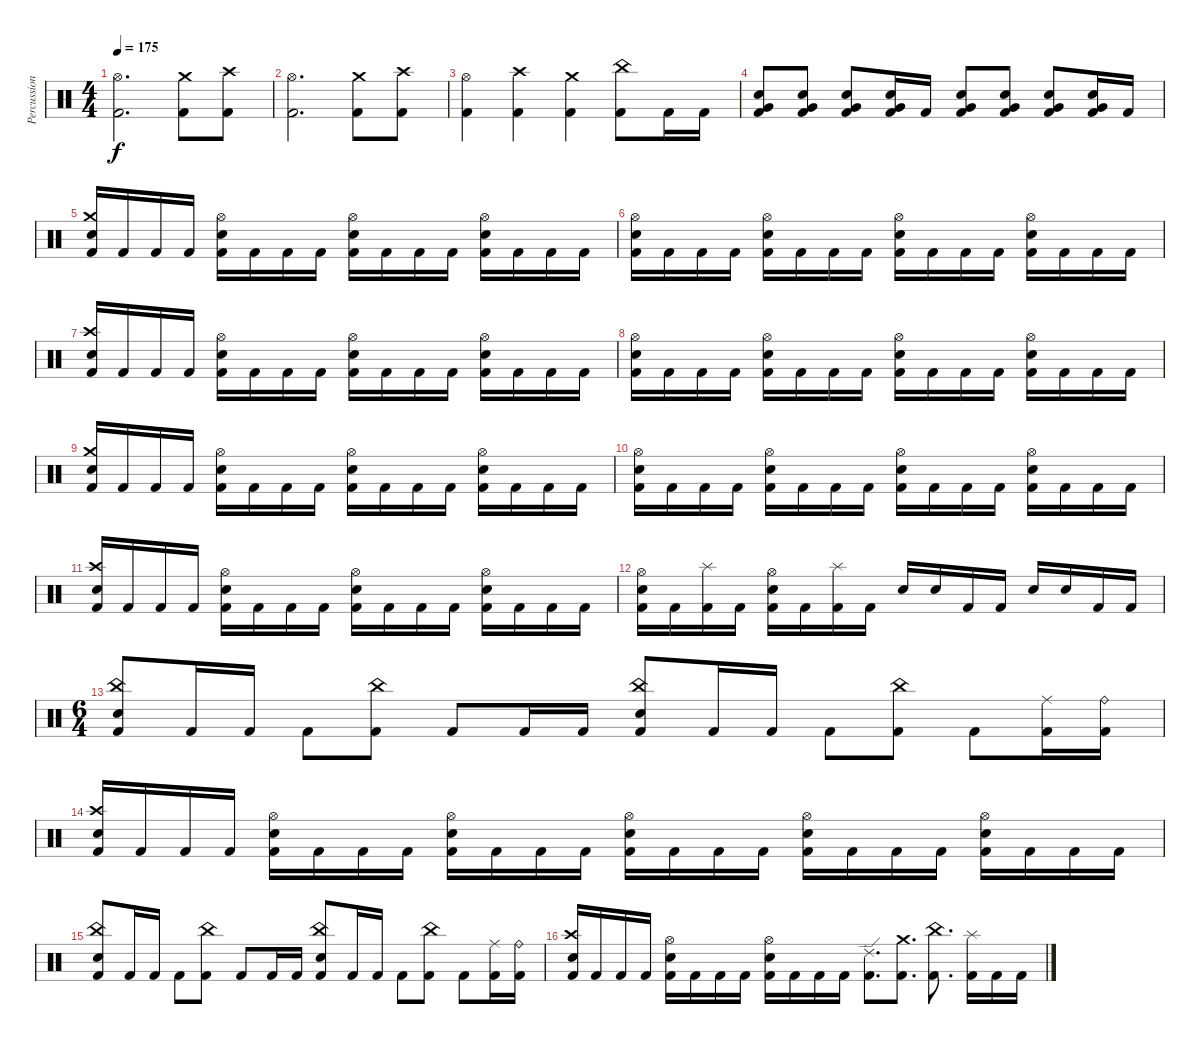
\track ("Percussions" "Percussion") {instrument percussion}
\staff {score}
\articulation defaults
\ts (4 4)
\tempo 175
\clef neutral
\ks c
("Hi-Hat (open)" "Kick (hit) 2").2{d dy f} ("Crash medium (hit)" "Kick (hit) 2").8 ("Crash high (hit)" "Kick (hit) 2").8 |
("Hi-Hat (open)" "Kick (hit) 2").2{d} ("Crash medium (hit)" "Kick (hit) 2").8 ("Crash high (hit)" "Kick (hit) 2").8 |
("Hi-Hat (open)" "Kick (hit) 2").4 ("Crash high (hit)" "Kick (hit) 2").4 ("Crash medium (hit)" "Kick (hit) 2").4 ("China (hit)" "Kick (hit) 2").8 "Kick (hit) 2".16 "Kick (hit) 2".16 |
("Electric Snare (hit)" "Very Low Tom (hit)" "Kick (hit) 2").8 ("Electric Snare (hit)" "Very Low Tom (hit)" "Kick (hit) 2").8 ("Electric Snare (hit)" "Very Low Tom (hit)" "Kick (hit) 2").8 ("Electric Snare (hit)" "Very Low Tom (hit)" "Kick (hit) 2").16 "Kick (hit) 2".16 ("Electric Snare (hit)" "Very Low Tom (hit)" "Kick (hit) 2").8 ("Electric Snare (hit)" "Very Low Tom (hit)" "Kick (hit) 2").8 ("Electric Snare (hit)" "Very Low Tom (hit)" "Kick (hit) 2").8 ("Electric Snare (hit)" "Very Low Tom (hit)" "Kick (hit) 2").16 "Kick (hit) 2".16 |
("Crash medium (hit)" "Electric Snare (hit)" "Kick (hit) 2").16 "Kick (hit) 2".16 "Kick (hit) 2".16 "Kick (hit) 2".16 ("Hi-Hat (open)" "Electric Snare (hit)" "Kick (hit) 2").16 "Kick (hit) 2".16 "Kick (hit) 2".16 "Kick (hit) 2".16 ("Hi-Hat (open)" "Electric Snare (hit)" "Kick (hit) 2").16 "Kick (hit) 2".16 "Kick (hit) 2".16 "Kick (hit) 2".16 ("Hi-Hat (open)" "Electric Snare (hit)" "Kick (hit) 2").16 "Kick (hit) 2".16 "Kick (hit) 2".16 "Kick (hit) 2".16 |
("Hi-Hat (open)" "Electric Snare (hit)" "Kick (hit) 2").16 "Kick (hit) 2".16 "Kick (hit) 2".16 "Kick (hit) 2".16 ("Hi-Hat (open)" "Electric Snare (hit)" "Kick (hit) 2").16 "Kick (hit) 2".16 "Kick (hit) 2".16 "Kick (hit) 2".16 ("Hi-Hat (open)" "Electric Snare (hit)" "Kick (hit) 2").16 "Kick (hit) 2".16 "Kick (hit) 2".16 "Kick (hit) 2".16 ("Hi-Hat (open)" "Electric Snare (hit)" "Kick (hit) 2").16 "Kick (hit) 2".16 "Kick (hit) 2".16 "Kick (hit) 2".16 |
("Crash high (hit)" "Electric Snare (hit)" "Kick (hit) 2").16 "Kick (hit) 2".16 "Kick (hit) 2".16 "Kick (hit) 2".16 ("Hi-Hat (open)" "Electric Snare (hit)" "Kick (hit) 2").16 "Kick (hit) 2".16 "Kick (hit) 2".16 "Kick (hit) 2".16 ("Hi-Hat (open)" "Electric Snare (hit)" "Kick (hit) 2").16 "Kick (hit) 2".16 "Kick (hit) 2".16 "Kick (hit) 2".16 ("Hi-Hat (open)" "Electric Snare (hit)" "Kick (hit) 2").16 "Kick (hit) 2".16 "Kick (hit) 2".16 "Kick (hit) 2".16 |
("Hi-Hat (open)" "Electric Snare (hit)" "Kick (hit) 2").16 "Kick (hit) 2".16 "Kick (hit) 2".16 "Kick (hit) 2".16 ("Hi-Hat (open)" "Electric Snare (hit)" "Kick (hit) 2").16 "Kick (hit) 2".16 "Kick (hit) 2".16 "Kick (hit) 2".16 ("Hi-Hat (open)" "Electric Snare (hit)" "Kick (hit) 2").16 "Kick (hit) 2".16 "Kick (hit) 2".16 "Kick (hit) 2".16 ("Hi-Hat (open)" "Electric Snare (hit)" "Kick (hit) 2").16 "Kick (hit) 2".16 "Kick (hit) 2".16 "Kick (hit) 2".16 |
("Crash medium (hit)" "Electric Snare (hit)" "Kick (hit) 2").16 "Kick (hit) 2".16 "Kick (hit) 2".16 "Kick (hit) 2".16 ("Hi-Hat (open)" "Electric Snare (hit)" "Kick (hit) 2").16 "Kick (hit) 2".16 "Kick (hit) 2".16 "Kick (hit) 2".16 ("Hi-Hat (open)" "Electric Snare (hit)" "Kick (hit) 2").16 "Kick (hit) 2".16 "Kick (hit) 2".16 "Kick (hit) 2".16 ("Hi-Hat (open)" "Electric Snare (hit)" "Kick (hit) 2").16 "Kick (hit) 2".16 "Kick (hit) 2".16 "Kick (hit) 2".16 |
("Hi-Hat (open)" "Electric Snare (hit)" "Kick (hit) 2").16 "Kick (hit) 2".16 "Kick (hit) 2".16 "Kick (hit) 2".16 ("Hi-Hat (open)" "Electric Snare (hit)" "Kick (hit) 2").16 "Kick (hit) 2".16 "Kick (hit) 2".16 "Kick (hit) 2".16 ("Hi-Hat (open)" "Electric Snare (hit)" "Kick (hit) 2").16 "Kick (hit) 2".16 "Kick (hit) 2".16 "Kick (hit) 2".16 ("Hi-Hat (open)" "Electric Snare (hit)" "Kick (hit) 2").16 "Kick (hit) 2".16 "Kick (hit) 2".16 "Kick (hit) 2".16 |
("Crash high (hit)" "Electric Snare (hit)" "Kick (hit) 2").16 "Kick (hit) 2".16 "Kick (hit) 2".16 "Kick (hit) 2".16 ("Hi-Hat (open)" "Electric Snare (hit)" "Kick (hit) 2").16 "Kick (hit) 2".16 "Kick (hit) 2".16 "Kick (hit) 2".16 ("Hi-Hat (open)" "Electric Snare (hit)" "Kick (hit) 2").16 "Kick (hit) 2".16 "Kick (hit) 2".16 "Kick (hit) 2".16 ("Hi-Hat (open)" "Electric Snare (hit)" "Kick (hit) 2").16 "Kick (hit) 2".16 "Kick (hit) 2".16 "Kick (hit) 2".16 |
("Hi-Hat (open)" "Electric Snare (hit)" "Kick (hit) 2").16 "Kick (hit) 2".16 ("Splash (hit)" "Kick (hit) 2").16 "Kick (hit) 2".16 ("Hi-Hat (open)" "Electric Snare (hit)" "Kick (hit) 2").16 "Kick (hit) 2".16 ("Splash (hit)" "Kick (hit) 2").16 "Kick (hit) 2".16 "Electric Snare (hit)".16 "Electric Snare (hit)".16 "Kick (hit) 2".16 "Kick (hit) 2".16 "Electric Snare (hit)".16 "Electric Snare (hit)".16 "Kick (hit) 2".16 "Kick (hit) 2".16 |
\ts (6 4)
("China (hit)" "Electric Snare (hit)" "Kick (hit) 2").8 "Kick (hit) 2".16 "Kick (hit) 2".16 "Kick (hit) 2".8 ("China (hit)" "Kick (hit) 2").8 "Kick (hit) 2".8 "Kick (hit) 2".16 "Kick (hit) 2".16 ("China (hit)" "Electric Snare (hit)" "Kick (hit) 2").8 "Kick (hit) 2".16 "Kick (hit) 2".16 "Kick (hit) 2".8 ("China (hit)" "Kick (hit) 2").8 "Kick (hit) 2".8 ("Ride (middle)" "Kick (hit) 2").16 ("Ride (bell)" "Kick (hit) 2").16 |
("Crash high (hit)" "Electric Snare (hit)" "Kick (hit) 2").16 "Kick (hit) 2".16 "Kick (hit) 2".16 "Kick (hit) 2".16 ("Hi-Hat (open)" "Electric Snare (hit)" "Kick (hit) 2").16 "Kick (hit) 2".16 "Kick (hit) 2".16 "Kick (hit) 2".16 ("Hi-Hat (open)" "Electric Snare (hit)" "Kick (hit) 2").16 "Kick (hit) 2".16 "Kick (hit) 2".16 "Kick (hit) 2".16 ("Hi-Hat (open)" "Electric Snare (hit)" "Kick (hit) 2").16 "Kick (hit) 2".16 "Kick (hit) 2".16 "Kick (hit) 2".16 ("Hi-Hat (open)" "Electric Snare (hit)" "Kick (hit) 2").16 "Kick (hit) 2".16 "Kick (hit) 2".16 "Kick (hit) 2".16 ("Hi-Hat (open)" "Electric Snare (hit)" "Kick (hit) 2").16 "Kick (hit) 2".16 "Kick (hit) 2".16 "Kick (hit) 2".16 |
("China (hit)" "Electric Snare (hit)" "Kick (hit) 2").8 "Kick (hit) 2".16 "Kick (hit) 2".16 "Kick (hit) 2".8 ("China (hit)" "Kick (hit) 2").8 "Kick (hit) 2".8 "Kick (hit) 2".16 "Kick (hit) 2".16 ("China (hit)" "Electric Snare (hit)" "Kick (hit) 2").8 "Kick (hit) 2".16 "Kick (hit) 2".16 "Kick (hit) 2".8 ("China (hit)" "Kick (hit) 2").8 "Kick (hit) 2".8 ("Ride (middle)" "Kick (hit) 2").16 ("Ride (bell)" "Kick (hit) 2").16 |
("Crash high (hit)" "Electric Snare (hit)" "Kick (hit) 2").16 "Kick (hit) 2".16 "Kick (hit) 2".16 "Kick (hit) 2".16 ("Hi-Hat (open)" "Electric Snare (hit)" "Kick (hit) 2").16 "Kick (hit) 2".16 "Kick (hit) 2".16 "Kick (hit) 2".16 ("Hi-Hat (open)" "Electric Snare (hit)" "Kick (hit) 2").16 "Kick (hit) 2".16 "Kick (hit) 2".16 "Kick (hit) 2".16 ("Ride (edge) 2" "Kick (hit) 2").8{d} ("Crash medium (hit)" "Kick (hit) 2").8{d} ("China (hit)" "Kick (hit) 2").8{d} ("Splash (hit)" "Kick (hit) 2").16 "Kick (hit) 2".16 "Kick (hit) 2".16
